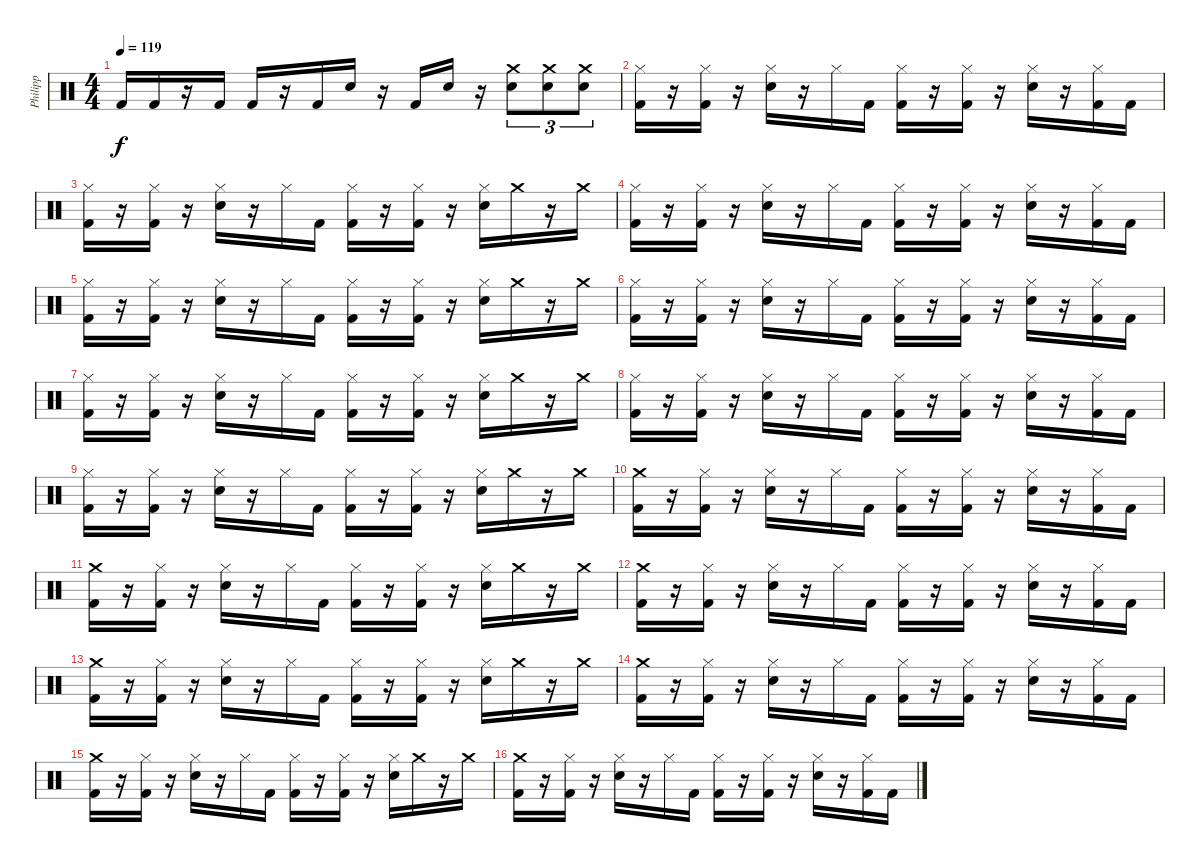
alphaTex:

\track ("Philipp" "Philipp") {instrument percussion}
\staff {score}
\articulation defaults
\ts (4 4)
\tempo 119
\clef neutral
\ks c "Kick (hit) 2".16{dy f} "Kick (hit) 2".16
r.16 "Kick (hit) 2".16 "Kick (hit) 2".16 r.16 "Kick (hit) 2".16 "Electric Snare (hit)".16 r.16 "Kick (hit) 2".16 "Electric Snare (hit)".16 r.16 ("Crash medium (hit)" "Electric Snare (hit)").8{tu (3 2)} ("Crash medium (hit)" "Electric Snare (hit)").8{tu (3 2)} ("Crash medium (hit)" "Electric Snare (hit)").8{tu (3 2)} |
("Hi-Hat (closed)" "Kick (hit) 2").16 r.16 ("Hi-Hat (closed)" "Kick (hit) 2").16 r.16 ("Hi-Hat (closed)" "Electric Snare (hit)").16 r.16 "Hi-Hat (closed)".16 "Kick (hit) 2".16 ("Hi-Hat (closed)" "Kick (hit) 2").16 r.16 ("Hi-Hat (closed)" "Kick (hit) 2").16 r.16 ("Hi-Hat (closed)" "Electric Snare (hit)").16 r.16 ("Hi-Hat (closed)" "Kick (hit) 2").16 "Kick (hit) 2".16 |
("Hi-Hat (closed)" "Kick (hit) 2").16 r.16 ("Hi-Hat (closed)" "Kick (hit) 2").16 r.16 ("Hi-Hat (closed)" "Electric Snare (hit)").16 r.16 "Hi-Hat (closed)".16 "Kick (hit) 2".16 ("Hi-Hat (closed)" "Kick (hit) 2").16 r.16 ("Hi-Hat (closed)" "Kick (hit) 2").16 r.16 ("Hi-Hat (closed)" "Electric Snare (hit)").16 "Crash medium (hit)".16 r.16 "Crash medium (hit)".16 |
("Hi-Hat (closed)" "Kick (hit) 2").16 r.16 ("Hi-Hat (closed)" "Kick (hit) 2").16 r.16 ("Hi-Hat (closed)" "Electric Snare (hit)").16 r.16 "Hi-Hat (closed)".16 "Kick (hit) 2".16 ("Hi-Hat (closed)" "Kick (hit) 2").16 r.16 ("Hi-Hat (closed)" "Kick (hit) 2").16 r.16 ("Hi-Hat (closed)" "Electric Snare (hit)").16 r.16 ("Hi-Hat (closed)" "Kick (hit) 2").16 "Kick (hit) 2".16 |
("Hi-Hat (closed)" "Kick (hit) 2").16 r.16 ("Hi-Hat (closed)" "Kick (hit) 2").16 r.16 ("Hi-Hat (closed)" "Electric Snare (hit)").16 r.16 "Hi-Hat (closed)".16 "Kick (hit) 2".16 ("Hi-Hat (closed)" "Kick (hit) 2").16 r.16 ("Hi-Hat (closed)" "Kick (hit) 2").16 r.16 ("Hi-Hat (closed)" "Electric Snare (hit)").16 "Crash medium (hit)".16 r.16 "Crash medium (hit)".16 |
("Hi-Hat (closed)" "Kick (hit) 2").16 r.16 ("Hi-Hat (closed)" "Kick (hit) 2").16 r.16 ("Hi-Hat (closed)" "Electric Snare (hit)").16 r.16 "Hi-Hat (closed)".16 "Kick (hit) 2".16 ("Hi-Hat (closed)" "Kick (hit) 2").16 r.16 ("Hi-Hat (closed)" "Kick (hit) 2").16 r.16 ("Hi-Hat (closed)" "Electric Snare (hit)").16 r.16 ("Hi-Hat (closed)" "Kick (hit) 2").16 "Kick (hit) 2".16 |
("Hi-Hat (closed)" "Kick (hit) 2").16 r.16 ("Hi-Hat (closed)" "Kick (hit) 2").16 r.16 ("Hi-Hat (closed)" "Electric Snare (hit)").16 r.16 "Hi-Hat (closed)".16 "Kick (hit) 2".16 ("Hi-Hat (closed)" "Kick (hit) 2").16 r.16 ("Hi-Hat (closed)" "Kick (hit) 2").16 r.16 ("Hi-Hat (closed)" "Electric Snare (hit)").16 "Crash medium (hit)".16 r.16 "Crash medium (hit)".16 |
("Hi-Hat (closed)" "Kick (hit) 2").16 r.16 ("Hi-Hat (closed)" "Kick (hit) 2").16 r.16 ("Hi-Hat (closed)" "Electric Snare (hit)").16 r.16 "Hi-Hat (closed)".16 "Kick (hit) 2".16 ("Hi-Hat (closed)" "Kick (hit) 2").16 r.16 ("Hi-Hat (closed)" "Kick (hit) 2").16 r.16 ("Hi-Hat (closed)" "Electric Snare (hit)").16 r.16 ("Hi-Hat (closed)" "Kick (hit) 2").16 "Kick (hit) 2".16 |
("Hi-Hat (closed)" "Kick (hit) 2").16 r.16 ("Hi-Hat (closed)" "Kick (hit) 2").16 r.16 ("Hi-Hat (closed)" "Electric Snare (hit)").16 r.16 "Hi-Hat (closed)".16 "Kick (hit) 2".16 ("Hi-Hat (closed)" "Kick (hit) 2").16 r.16 ("Hi-Hat (closed)" "Kick (hit) 2").16 r.16 ("Hi-Hat (closed)" "Electric Snare (hit)").16 "Crash medium (hit)".16 r.16 "Crash medium (hit)".16 |
("Crash medium (hit)" "Kick (hit) 2").16 r.16 ("Hi-Hat (closed)" "Kick (hit) 2").16 r.16 ("Hi-Hat (closed)" "Electric Snare (hit)").16 r.16 "Hi-Hat (closed)".16 "Kick (hit) 2".16 ("Hi-Hat (closed)" "Kick (hit) 2").16 r.16 ("Hi-Hat (closed)" "Kick (hit) 2").16 r.16 ("Hi-Hat (closed)" "Electric Snare (hit)").16 r.16 ("Hi-Hat (closed)" "Kick (hit) 2").16 "Kick (hit) 2".16 |
("Crash medium (hit)" "Kick (hit) 2").16 r.16 ("Hi-Hat (closed)" "Kick (hit) 2").16 r.16 ("Hi-Hat (closed)" "Electric Snare (hit)").16 r.16 "Hi-Hat (closed)".16 "Kick (hit) 2".16 ("Hi-Hat (closed)" "Kick (hit) 2").16 r.16 ("Hi-Hat (closed)" "Kick (hit) 2").16 r.16 ("Hi-Hat (closed)" "Electric Snare (hit)").16 "Crash medium (hit)".16 r.16 "Crash medium (hit)".16 |
("Crash medium (hit)" "Kick (hit) 2").16 r.16 ("Hi-Hat (closed)" "Kick (hit) 2").16 r.16 ("Hi-Hat (closed)" "Electric Snare (hit)").16 r.16 "Hi-Hat (closed)".16 "Kick (hit) 2".16 ("Hi-Hat (closed)" "Kick (hit) 2").16 r.16 ("Hi-Hat (closed)" "Kick (hit) 2").16 r.16 ("Hi-Hat (closed)" "Electric Snare (hit)").16 r.16 ("Hi-Hat (closed)" "Kick (hit) 2").16 "Kick (hit) 2".16 |
("Crash medium (hit)" "Kick (hit) 2").16 r.16 ("Hi-Hat (closed)" "Kick (hit) 2").16 r.16 ("Hi-Hat (closed)" "Electric Snare (hit)").16 r.16 "Hi-Hat (closed)".16 "Kick (hit) 2".16 ("Hi-Hat (closed)" "Kick (hit) 2").16 r.16 ("Hi-Hat (closed)" "Kick (hit) 2").16 r.16 ("Hi-Hat (closed)" "Electric Snare (hit)").16 "Crash medium (hit)".16 r.16 "Crash medium (hit)".16 |
("Crash medium (hit)" "Kick (hit) 2").16 r.16 ("Hi-Hat (closed)" "Kick (hit) 2").16 r.16 ("Hi-Hat (closed)" "Electric Snare (hit)").16 r.16 "Hi-Hat (closed)".16 "Kick (hit) 2".16 ("Hi-Hat (closed)" "Kick (hit) 2").16 r.16 ("Hi-Hat (closed)" "Kick (hit) 2").16 r.16 ("Hi-Hat (closed)" "Electric Snare (hit)").16 r.16 ("Hi-Hat (closed)" "Kick (hit) 2").16 "Kick (hit) 2".16 |
("Crash medium (hit)" "Kick (hit) 2").16 r.16 ("Hi-Hat (closed)" "Kick (hit) 2").16 r.16 ("Hi-Hat (closed)" "Electric Snare (hit)").16 r.16 "Hi-Hat (closed)".16 "Kick (hit) 2".16 ("Hi-Hat (closed)" "Kick (hit) 2").16 r.16 ("Hi-Hat (closed)" "Kick (hit) 2").16 r.16 ("Hi-Hat (closed)" "Electric Snare (hit)").16 "Crash medium (hit)".16 r.16 "Crash medium (hit)".16 |
("Crash medium (hit)" "Kick (hit) 2").16 r.16 ("Hi-Hat (closed)" "Kick (hit) 2").16 r.16 ("Hi-Hat (closed)" "Electric Snare (hit)").16 r.16 "Hi-Hat (closed)".16 "Kick (hit) 2".16 ("Hi-Hat (closed)" "Kick (hit) 2").16 r.16 ("Hi-Hat (closed)" "Kick (hit) 2").16 r.16 ("Hi-Hat (closed)" "Electric Snare (hit)").16 r.16 ("Hi-Hat (closed)" "Kick (hit) 2").16 "Kick (hit) 2".16
